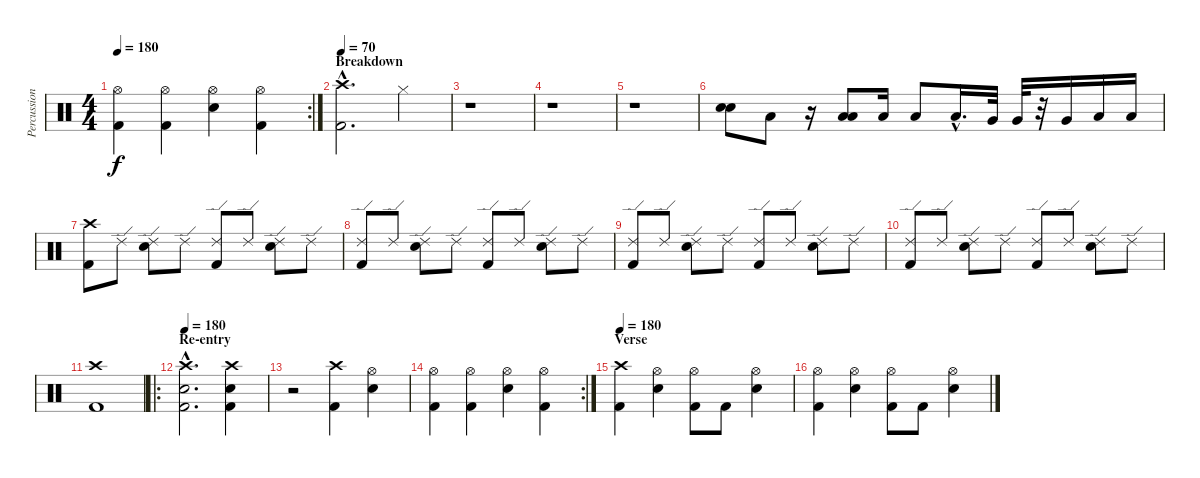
\track ("Percussion" "Percussion") {instrument percussion}
\staff {score}
\articulation defaults
\rc 2
\ts (4 4)
\tempo 180
\clef neutral
\ks c
("Hi-Hat (open)" "Kick (hit) 2").4{dy f} ("Hi-Hat (open)" "Kick (hit) 2").4 ("Hi-Hat (open)" "Snare (hit) 2").4 ("Hi-Hat (open)" "Kick (hit) 2").4 |
\section ("" "Breakdown")
\tempo 70
("Crash high (hit)"{hac} "Kick (hit) 2"{hac}).2{d} "Hi-Hat (closed)".4 |
r.1 |
r.1 |
r.1 |
("Snare (hit) 2" "Snare (hit) 2").8{bd 120} "Low Tom (hit)".8 r.16 ("Low Tom (hit)" "Low Tom (hit)").8{bd 120} "Low Tom (hit)".16 "Low Tom (hit)".8 "Low Tom (hit)"{hac}.16{d} "Very Low Tom (hit)".32 "Very Low Tom (hit)".32 r.32 "Very Low Tom (hit)".16 "Low Floor Tom (hit)".16 "Low Floor Tom (hit)".16 |
("Crash high (hit)" "Kick (hit) 2").8 "Ride (edge) 2".8 ("Ride (edge) 2" "Snare (hit) 2").8 "Ride (edge) 2".8 ("Ride (edge) 2" "Kick (hit) 2").8 "Ride (edge) 2".8 ("Ride (edge) 2" "Snare (hit) 2").8 "Ride (edge) 2".8 |
("Ride (edge) 2" "Kick (hit) 2").8 "Ride (edge) 2".8 ("Ride (edge) 2" "Snare (hit) 2").8 "Ride (edge) 2".8 ("Ride (edge) 2" "Kick (hit) 2").8 "Ride (edge) 2".8 ("Ride (edge) 2" "Snare (hit) 2").8 "Ride (edge) 2".8 |
("Ride (edge) 2" "Kick (hit) 2").8 "Ride (edge) 2".8 ("Ride (edge) 2" "Snare (hit) 2").8 "Ride (edge) 2".8 ("Ride (edge) 2" "Kick (hit) 2").8 "Ride (edge) 2".8 ("Ride (edge) 2" "Snare (hit) 2").8 "Ride (edge) 2".8 |
("Ride (edge) 2" "Kick (hit) 2").8 "Ride (edge) 2".8 ("Ride (edge) 2" "Snare (hit) 2").8 "Ride (edge) 2".8 ("Ride (edge) 2" "Kick (hit) 2").8 "Ride (edge) 2".8 ("Ride (edge) 2" "Snare (hit) 2").8 "Ride (edge) 2".8 |
("Crash high (hit)" "Kick (hit) 2").1 |
\ro
\section ("" "Re-entry")
\tempo 180
("Crash high (hit)"{hac} "Snare (hit) 2"{hac} "Kick (hit) 2"{hac}).2{d} ("Crash high (hit)" "Snare (hit) 2" "Kick (hit) 2").4 |
r.2 ("Crash high (hit)" "Kick (hit) 2").4 ("Hi-Hat (open)" "Snare (hit) 2").4 |
\rc 2
("Hi-Hat (open)" "Kick (hit) 2").4 ("Hi-Hat (open)" "Kick (hit) 2").4 ("Hi-Hat (open)" "Snare (hit) 2").4 ("Hi-Hat (open)" "Kick (hit) 2").4 |
\section ("" "Verse")
\tempo 180
("Crash high (hit)" "Kick (hit) 2").4 ("Hi-Hat (open)" "Snare (hit) 2").4 ("Hi-Hat (open)" "Kick (hit) 2").8 "Kick (hit) 2".8 ("Hi-Hat (open)" "Snare (hit) 2").4 |
("Hi-Hat (open)" "Kick (hit) 2").4 ("Hi-Hat (open)" "Snare (hit) 2").4 ("Hi-Hat (open)" "Kick (hit) 2").8 "Kick (hit) 2".8 ("Hi-Hat (open)" "Snare (hit) 2").4
